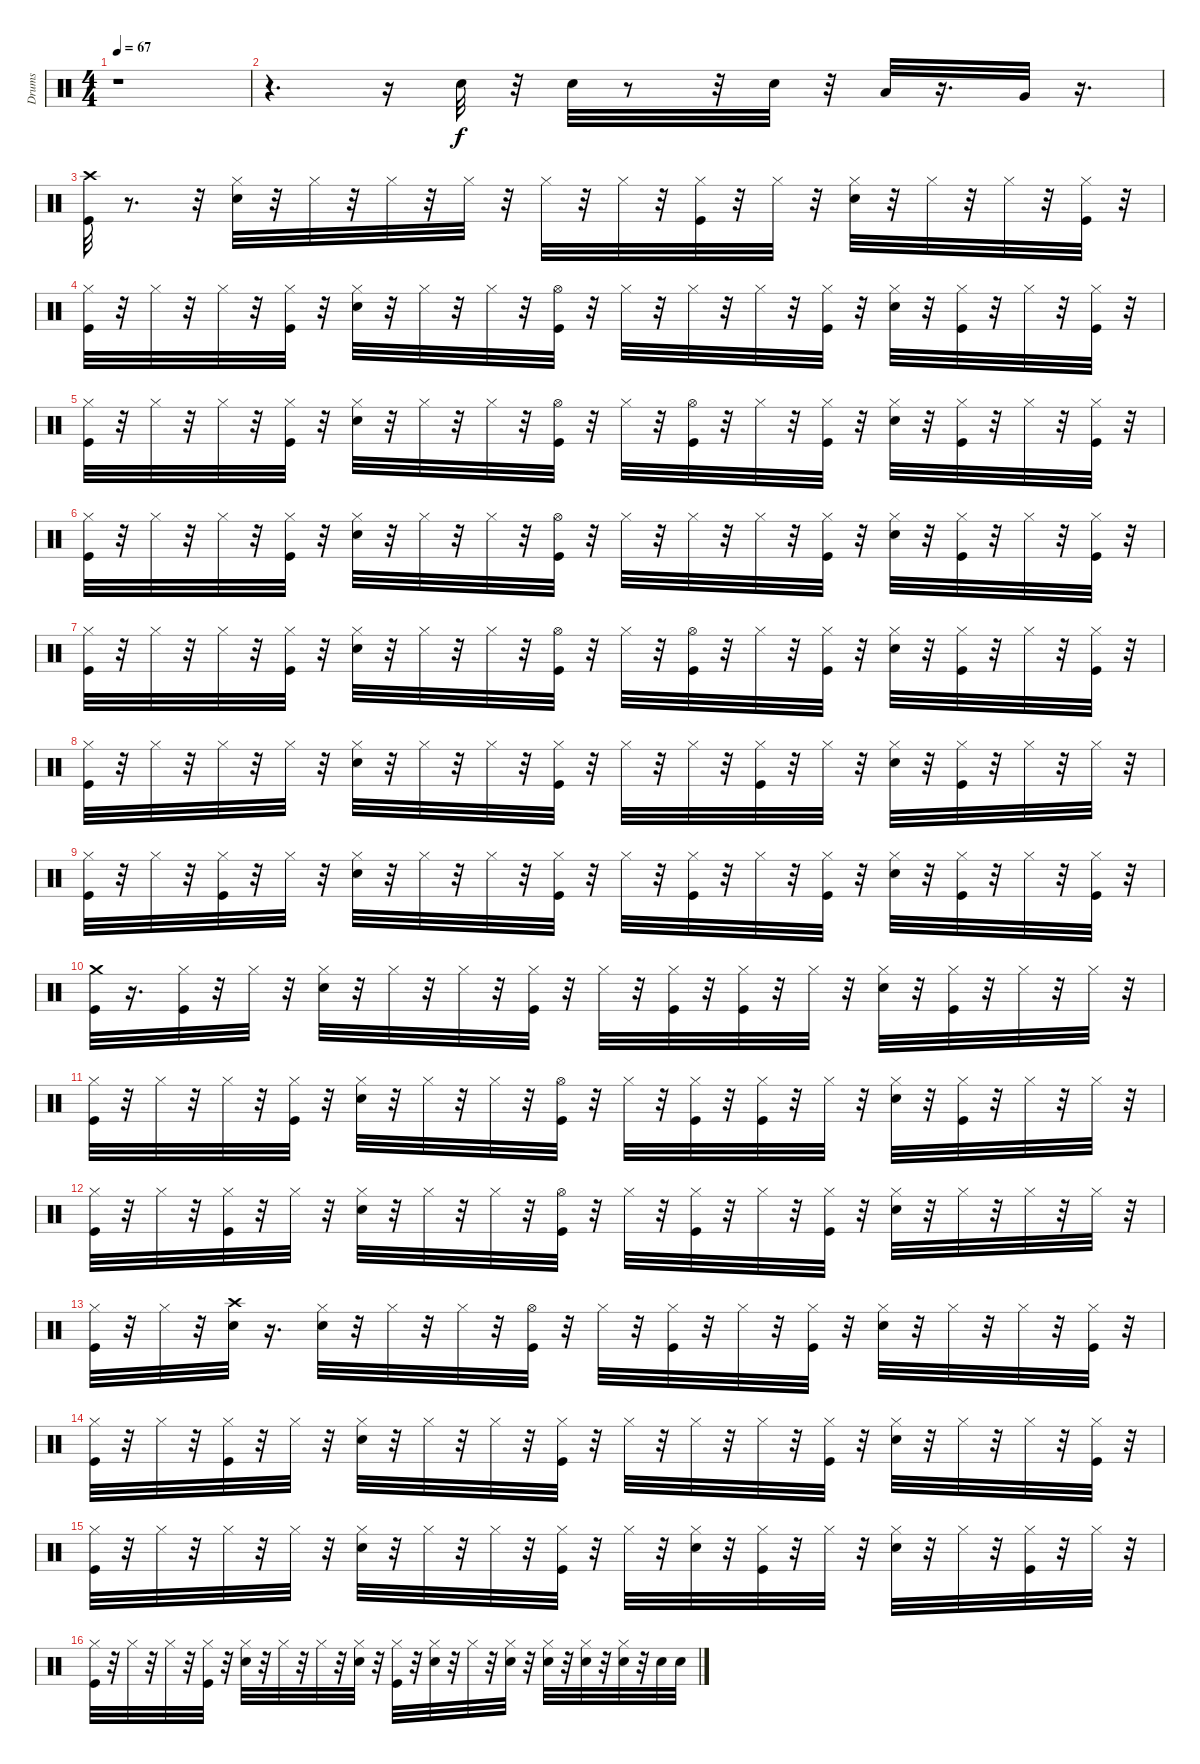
\track ("Drums" "Drums") {instrument percussion}
\staff {score}
\articulation defaults
\ts (4 4)
\tempo 67
\clef neutral
\ks c
r.1{dy mf} |
r.4{d} r.16 "Snare (hit) 2".32{dy f} r.32 "Snare (hit) 2".32 r.8 r.32 "Snare (hit) 2".32 r.32 "Low Tom (hit)".32 r.16{d} "Very Low Tom (hit)".32 r.16{d} |
("Crash high (hit)" "Kick (hit)").32 r.8{d} r.32 ("Hi-Hat (closed)" "Snare (hit) 2").32 r.32 "Hi-Hat (closed)".32 r.32 "Hi-Hat (closed)".32 r.32 "Hi-Hat (closed)".32 r.32 "Hi-Hat (closed)".32 r.32 "Hi-Hat (closed)".32 r.32 ("Hi-Hat (closed)" "Kick (hit)").32 r.32 "Hi-Hat (closed)".32 r.32 ("Hi-Hat (closed)" "Snare (hit) 2").32 r.32 "Hi-Hat (closed)".32 r.32 "Hi-Hat (closed)".32 r.32 ("Hi-Hat (closed)" "Kick (hit)").32 r.32 |
("Kick (hit)" "Hi-Hat (closed)").32 r.32 "Hi-Hat (closed)".32 r.32 "Hi-Hat (closed)".32 r.32 ("Kick (hit)" "Hi-Hat (closed)").32 r.32 ("Snare (hit) 2" "Hi-Hat (closed)").32 r.32 "Hi-Hat (closed)".32 r.32 "Hi-Hat (closed)".32 r.32 ("Kick (hit)" "Hi-Hat (open)").32 r.32 "Hi-Hat (closed)".32 r.32 "Hi-Hat (closed)".32 r.32 "Hi-Hat (closed)".32 r.32 ("Kick (hit)" "Hi-Hat (closed)").32 r.32 ("Snare (hit) 2" "Hi-Hat (closed)").32 r.32 ("Kick (hit)" "Hi-Hat (closed)").32 r.32 "Hi-Hat (closed)".32 r.32 ("Kick (hit)" "Hi-Hat (closed)").32 r.32 |
("Kick (hit)" "Hi-Hat (closed)").32 r.32 "Hi-Hat (closed)".32 r.32 "Hi-Hat (closed)".32 r.32 ("Kick (hit)" "Hi-Hat (closed)").32 r.32 ("Snare (hit) 2" "Hi-Hat (closed)").32 r.32 "Hi-Hat (closed)".32 r.32 "Hi-Hat (closed)".32 r.32 ("Kick (hit)" "Hi-Hat (open)").32 r.32 "Hi-Hat (closed)".32 r.32 ("Kick (hit)" "Hi-Hat (open)").32 r.32 "Hi-Hat (closed)".32 r.32 ("Kick (hit)" "Hi-Hat (closed)").32 r.32 ("Snare (hit) 2" "Hi-Hat (closed)").32 r.32 ("Kick (hit)" "Hi-Hat (closed)").32 r.32 "Hi-Hat (closed)".32 r.32 ("Kick (hit)" "Hi-Hat (closed)").32 r.32 |
("Hi-Hat (closed)" "Kick (hit)").32 r.32 "Hi-Hat (closed)".32 r.32 "Hi-Hat (closed)".32 r.32 ("Hi-Hat (closed)" "Kick (hit)").32 r.32 ("Hi-Hat (closed)" "Snare (hit) 2").32 r.32 "Hi-Hat (closed)".32 r.32 "Hi-Hat (closed)".32 r.32 ("Hi-Hat (open)" "Kick (hit)").32 r.32 "Hi-Hat (closed)".32 r.32 "Hi-Hat (closed)".32 r.32 "Hi-Hat (closed)".32 r.32 ("Hi-Hat (closed)" "Kick (hit)").32 r.32 ("Hi-Hat (closed)" "Snare (hit) 2").32 r.32 ("Hi-Hat (closed)" "Kick (hit)").32 r.32 "Hi-Hat (closed)".32 r.32 ("Hi-Hat (closed)" "Kick (hit)").32 r.32 |
("Hi-Hat (closed)" "Kick (hit)").32 r.32 "Hi-Hat (closed)".32 r.32 "Hi-Hat (closed)".32 r.32 ("Hi-Hat (closed)" "Kick (hit)").32 r.32 ("Hi-Hat (closed)" "Snare (hit) 2").32 r.32 "Hi-Hat (closed)".32 r.32 "Hi-Hat (closed)".32 r.32 ("Hi-Hat (open)" "Kick (hit)").32 r.32 "Hi-Hat (closed)".32 r.32 ("Kick (hit)" "Hi-Hat (open)").32 r.32 "Hi-Hat (closed)".32 r.32 ("Hi-Hat (closed)" "Kick (hit)").32 r.32 ("Hi-Hat (closed)" "Snare (hit) 2").32 r.32 ("Hi-Hat (closed)" "Kick (hit)").32 r.32 "Hi-Hat (closed)".32 r.32 ("Hi-Hat (closed)" "Kick (hit)").32 r.32 |
("Kick (hit)" "Hi-Hat (closed)").32 r.32 "Hi-Hat (closed)".32 r.32 "Hi-Hat (closed)".32 r.32 "Hi-Hat (closed)".32 r.32 ("Snare (hit) 2" "Hi-Hat (closed)").32 r.32 "Hi-Hat (closed)".32 r.32 "Hi-Hat (closed)".32 r.32 ("Hi-Hat (closed)" "Kick (hit)").32 r.32 "Hi-Hat (closed)".32 r.32 "Hi-Hat (closed)".32 r.32 ("Kick (hit)" "Hi-Hat (closed)").32 r.32 "Hi-Hat (closed)".32 r.32 ("Snare (hit) 2" "Hi-Hat (closed)").32 r.32 ("Kick (hit)" "Hi-Hat (closed)").32 r.32 "Hi-Hat (closed)".32 r.32 "Hi-Hat (closed)".32 r.32 |
("Kick (hit)" "Hi-Hat (closed)").32 r.32 "Hi-Hat (closed)".32 r.32 ("Kick (hit)" "Hi-Hat (closed)").32 r.32 "Hi-Hat (closed)".32 r.32 ("Snare (hit) 2" "Hi-Hat (closed)").32 r.32 "Hi-Hat (closed)".32 r.32 "Hi-Hat (closed)".32 r.32 ("Hi-Hat (closed)" "Kick (hit)").32 r.32 "Hi-Hat (closed)".32 r.32 ("Kick (hit)" "Hi-Hat (closed)").32 r.32 "Hi-Hat (closed)".32 r.32 ("Kick (hit)" "Hi-Hat (closed)").32 r.32 ("Snare (hit) 2" "Hi-Hat (closed)").32 r.32 ("Kick (hit)" "Hi-Hat (closed)").32 r.32 "Hi-Hat (closed)".32 r.32 ("Kick (hit)" "Hi-Hat (closed)").32 r.32 |
("Crash medium (hit)" "Kick (hit)").32 r.16{d} ("Kick (hit)" "Hi-Hat (closed)").32 r.32 "Hi-Hat (closed)".32 r.32 ("Snare (hit) 2" "Hi-Hat (closed)").32 r.32 "Hi-Hat (closed)".32 r.32 "Hi-Hat (closed)".32 r.32 ("Hi-Hat (closed)" "Kick (hit)").32 r.32 "Hi-Hat (closed)".32 r.32 ("Kick (hit)" "Hi-Hat (closed)").32 r.32 ("Kick (hit)" "Hi-Hat (closed)").32 r.32 "Hi-Hat (closed)".32 r.32 ("Snare (hit) 2" "Hi-Hat (closed)").32 r.32 ("Kick (hit)" "Hi-Hat (closed)").32 r.32 "Hi-Hat (closed)".32 r.32 "Hi-Hat (closed)".32 r.32 |
("Kick (hit)" "Hi-Hat (closed)").32 r.32 "Hi-Hat (closed)".32 r.32 "Hi-Hat (closed)".32 r.32 ("Kick (hit)" "Hi-Hat (closed)").32 r.32 ("Snare (hit) 2" "Hi-Hat (closed)").32 r.32 "Hi-Hat (closed)".32 r.32 "Hi-Hat (closed)".32 r.32 ("Hi-Hat (open)" "Kick (hit)").32 r.32 "Hi-Hat (closed)".32 r.32 ("Kick (hit)" "Hi-Hat (closed)").32 r.32 ("Kick (hit)" "Hi-Hat (closed)").32 r.32 "Hi-Hat (closed)".32 r.32 ("Snare (hit) 2" "Hi-Hat (closed)").32 r.32 ("Kick (hit)" "Hi-Hat (closed)").32 r.32 "Hi-Hat (closed)".32 r.32 "Hi-Hat (closed)".32 r.32 |
("Kick (hit)" "Hi-Hat (closed)").32 r.32 "Hi-Hat (closed)".32 r.32 ("Kick (hit)" "Hi-Hat (closed)").32 r.32 "Hi-Hat (closed)".32 r.32 ("Snare (hit) 2" "Hi-Hat (closed)").32 r.32 "Hi-Hat (closed)".32 r.32 "Hi-Hat (closed)".32 r.32 ("Hi-Hat (open)" "Kick (hit)").32 r.32 "Hi-Hat (closed)".32 r.32 ("Kick (hit)" "Hi-Hat (closed)").32 r.32 "Hi-Hat (closed)".32 r.32 ("Kick (hit)" "Hi-Hat (closed)").32 r.32 ("Snare (hit) 2" "Hi-Hat (closed)").32 r.32 "Hi-Hat (closed)".32 r.32 "Hi-Hat (closed)".32 r.32 "Hi-Hat (closed)".32 r.32 |
("Kick (hit)" "Hi-Hat (closed)").32 r.32 "Hi-Hat (closed)".32 r.32 ("Snare (hit) 2" "Crash high (hit)").32 r.16{d} ("Snare (hit) 2" "Hi-Hat (closed)").32 r.32 "Hi-Hat (closed)".32 r.32 "Hi-Hat (closed)".32 r.32 ("Kick (hit)" "Hi-Hat (open)").32 r.32 "Hi-Hat (closed)".32 r.32 ("Kick (hit)" "Hi-Hat (closed)").32 r.32 "Hi-Hat (closed)".32 r.32 ("Kick (hit)" "Hi-Hat (closed)").32 r.32 ("Snare (hit) 2" "Hi-Hat (closed)").32 r.32 "Hi-Hat (closed)".32 r.32 "Hi-Hat (closed)".32 r.32 ("Kick (hit)" "Hi-Hat (closed)").32 r.32 |
("Kick (hit)" "Hi-Hat (closed)").32 r.32 "Hi-Hat (closed)".32 r.32 ("Kick (hit)" "Hi-Hat (closed)").32 r.32 "Hi-Hat (closed)".32 r.32 ("Snare (hit) 2" "Hi-Hat (closed)").32 r.32 "Hi-Hat (closed)".32 r.32 "Hi-Hat (closed)".32 r.32 ("Hi-Hat (closed)" "Kick (hit)").32 r.32 "Hi-Hat (closed)".32 r.32 "Hi-Hat (closed)".32 r.32 "Hi-Hat (closed)".32 r.32 ("Kick (hit)" "Hi-Hat (closed)").32 r.32 ("Snare (hit) 2" "Hi-Hat (closed)").32 r.32 "Hi-Hat (closed)".32 r.32 "Hi-Hat (closed)".32 r.32 ("Kick (hit)" "Hi-Hat (closed)").32 r.32 |
("Kick (hit)" "Hi-Hat (closed)").32 r.32 "Hi-Hat (closed)".32 r.32 "Hi-Hat (closed)".32 r.32 "Hi-Hat (closed)".32 r.32 ("Snare (hit) 2" "Hi-Hat (closed)").32 r.32 "Hi-Hat (closed)".32 r.32 "Hi-Hat (closed)".32 r.32 ("Hi-Hat (closed)" "Kick (hit)").32 r.32 "Hi-Hat (closed)".32 r.32 ("Snare (hit) 2" "Hi-Hat (closed)").32 r.32 ("Kick (hit)" "Hi-Hat (closed)").32 r.32 "Hi-Hat (closed)".32 r.32 ("Snare (hit) 2" "Hi-Hat (closed)").32 r.32 "Hi-Hat (closed)".32 r.32 ("Kick (hit)" "Hi-Hat (closed)").32 r.32 "Hi-Hat (closed)".32 r.32 |
("Kick (hit)" "Hi-Hat (closed)").32 r.32 "Hi-Hat (closed)".32 r.32 "Hi-Hat (closed)".32 r.32 ("Kick (hit)" "Hi-Hat (closed)").32 r.32 ("Snare (hit) 2" "Hi-Hat (closed)").32 r.32 "Hi-Hat (closed)".32 r.32 "Hi-Hat (closed)".32 r.32 ("Snare (hit) 2" "Hi-Hat (closed)").32 r.32 ("Kick (hit)" "Hi-Hat (closed)").32 r.32 ("Snare (hit) 2" "Hi-Hat (closed)").32 r.32 "Hi-Hat (closed)".32 r.32 ("Snare (hit) 2" "Hi-Hat (closed)").32 r.32 ("Snare (hit) 2" "Hi-Hat (closed)").32 r.32 ("Snare (hit) 2" "Hi-Hat (closed)").32 r.32 ("Snare (hit) 2" "Hi-Hat (closed)").32 r.32 "Snare (hit) 2".32 "Snare (hit) 2".32
